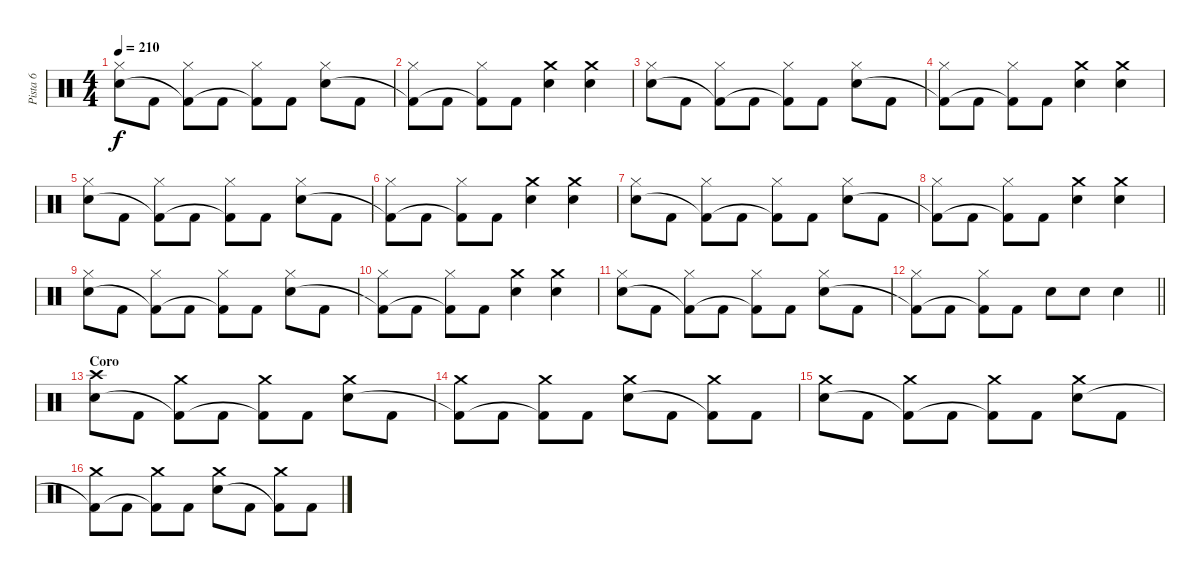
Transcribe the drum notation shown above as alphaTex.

\track ("Pista 6" "Pista 6") {instrument percussion}
\staff {score}
\articulation defaults
\ts (4 4)
\tempo 210
\clef neutral
\ks c
("Hi-Hat (closed)" "Electric Snare (hit)").8{dy f} "Kick (hit) 2".8 ("Hi-Hat (closed)" "Kick (hit) 2"{t}).8 "Kick (hit) 2".8 ("Hi-Hat (closed)" "Kick (hit) 2"{t}).8 "Kick (hit) 2".8 ("Hi-Hat (closed)" "Electric Snare (hit)").8 "Kick (hit) 2".8 |
("Hi-Hat (closed)" "Kick (hit) 2"{t}).8 "Kick (hit) 2".8 ("Hi-Hat (closed)" "Kick (hit) 2"{t}).8 "Kick (hit) 2".8 ("Crash medium (hit)" "Electric Snare (hit)").4 ("Crash medium (hit)" "Electric Snare (hit)").4 |
("Hi-Hat (closed)" "Electric Snare (hit)").8 "Kick (hit) 2".8 ("Hi-Hat (closed)" "Kick (hit) 2"{t}).8 "Kick (hit) 2".8 ("Hi-Hat (closed)" "Kick (hit) 2"{t}).8 "Kick (hit) 2".8 ("Hi-Hat (closed)" "Electric Snare (hit)").8 "Kick (hit) 2".8 |
("Hi-Hat (closed)" "Kick (hit) 2"{t}).8 "Kick (hit) 2".8 ("Hi-Hat (closed)" "Kick (hit) 2"{t}).8 "Kick (hit) 2".8 ("Crash medium (hit)" "Electric Snare (hit)").4 ("Crash medium (hit)" "Electric Snare (hit)").4 |
("Hi-Hat (closed)" "Electric Snare (hit)").8 "Kick (hit) 2".8 ("Hi-Hat (closed)" "Kick (hit) 2"{t}).8 "Kick (hit) 2".8 ("Hi-Hat (closed)" "Kick (hit) 2"{t}).8 "Kick (hit) 2".8 ("Hi-Hat (closed)" "Electric Snare (hit)").8 "Kick (hit) 2".8 |
("Hi-Hat (closed)" "Kick (hit) 2"{t}).8 "Kick (hit) 2".8 ("Hi-Hat (closed)" "Kick (hit) 2"{t}).8 "Kick (hit) 2".8 ("Crash medium (hit)" "Electric Snare (hit)").4 ("Crash medium (hit)" "Electric Snare (hit)").4 |
("Hi-Hat (closed)" "Electric Snare (hit)").8 "Kick (hit) 2".8 ("Hi-Hat (closed)" "Kick (hit) 2"{t}).8 "Kick (hit) 2".8 ("Hi-Hat (closed)" "Kick (hit) 2"{t}).8 "Kick (hit) 2".8 ("Hi-Hat (closed)" "Electric Snare (hit)").8 "Kick (hit) 2".8 |
("Hi-Hat (closed)" "Kick (hit) 2"{t}).8 "Kick (hit) 2".8 ("Hi-Hat (closed)" "Kick (hit) 2"{t}).8 "Kick (hit) 2".8 ("Crash medium (hit)" "Electric Snare (hit)").4 ("Crash medium (hit)" "Electric Snare (hit)").4 |
("Hi-Hat (closed)" "Electric Snare (hit)").8 "Kick (hit) 2".8 ("Hi-Hat (closed)" "Kick (hit) 2"{t}).8 "Kick (hit) 2".8 ("Hi-Hat (closed)" "Kick (hit) 2"{t}).8 "Kick (hit) 2".8 ("Hi-Hat (closed)" "Electric Snare (hit)").8 "Kick (hit) 2".8 |
("Hi-Hat (closed)" "Kick (hit) 2"{t}).8 "Kick (hit) 2".8 ("Hi-Hat (closed)" "Kick (hit) 2"{t}).8 "Kick (hit) 2".8 ("Crash medium (hit)" "Electric Snare (hit)").4 ("Crash medium (hit)" "Electric Snare (hit)").4 |
("Hi-Hat (closed)" "Electric Snare (hit)").8 "Kick (hit) 2".8 ("Hi-Hat (closed)" "Kick (hit) 2"{t}).8 "Kick (hit) 2".8 ("Hi-Hat (closed)" "Kick (hit) 2"{t}).8 "Kick (hit) 2".8 ("Hi-Hat (closed)" "Electric Snare (hit)").8 "Kick (hit) 2".8 |
\barLineRight lightlight
("Hi-Hat (closed)" "Kick (hit) 2"{t}).8 "Kick (hit) 2".8 ("Hi-Hat (closed)" "Kick (hit) 2"{t}).8 "Kick (hit) 2".8 "Electric Snare (hit)".8 "Electric Snare (hit)".8 "Electric Snare (hit)".4 |
\section ("" "Coro")
("Crash high (hit)" "Electric Snare (hit)").8 "Kick (hit) 2".8 ("Crash medium (hit)" "Kick (hit) 2"{t}).8 "Kick (hit) 2".8 ("Crash medium (hit)" "Kick (hit) 2"{t}).8 "Kick (hit) 2".8 ("Crash medium (hit)" "Electric Snare (hit)").8 "Kick (hit) 2".8 |
("Crash medium (hit)" "Kick (hit) 2"{t}).8 "Kick (hit) 2".8 ("Crash medium (hit)" "Kick (hit) 2"{t}).8 "Kick (hit) 2".8 ("Crash medium (hit)" "Electric Snare (hit)").8 "Kick (hit) 2".8 ("Crash medium (hit)" "Kick (hit) 2"{t}).8 "Kick (hit) 2".8 |
("Crash medium (hit)" "Electric Snare (hit)").8 "Kick (hit) 2".8 ("Crash medium (hit)" "Kick (hit) 2"{t}).8 "Kick (hit) 2".8 ("Crash medium (hit)" "Kick (hit) 2"{t}).8 "Kick (hit) 2".8 ("Crash medium (hit)" "Electric Snare (hit)").8 "Kick (hit) 2".8 |
("Crash medium (hit)" "Kick (hit) 2"{t}).8 "Kick (hit) 2".8 ("Crash medium (hit)" "Kick (hit) 2"{t}).8 "Kick (hit) 2".8 ("Crash medium (hit)" "Electric Snare (hit)").8 "Kick (hit) 2".8 ("Crash medium (hit)" "Kick (hit) 2"{t}).8 "Kick (hit) 2".8
